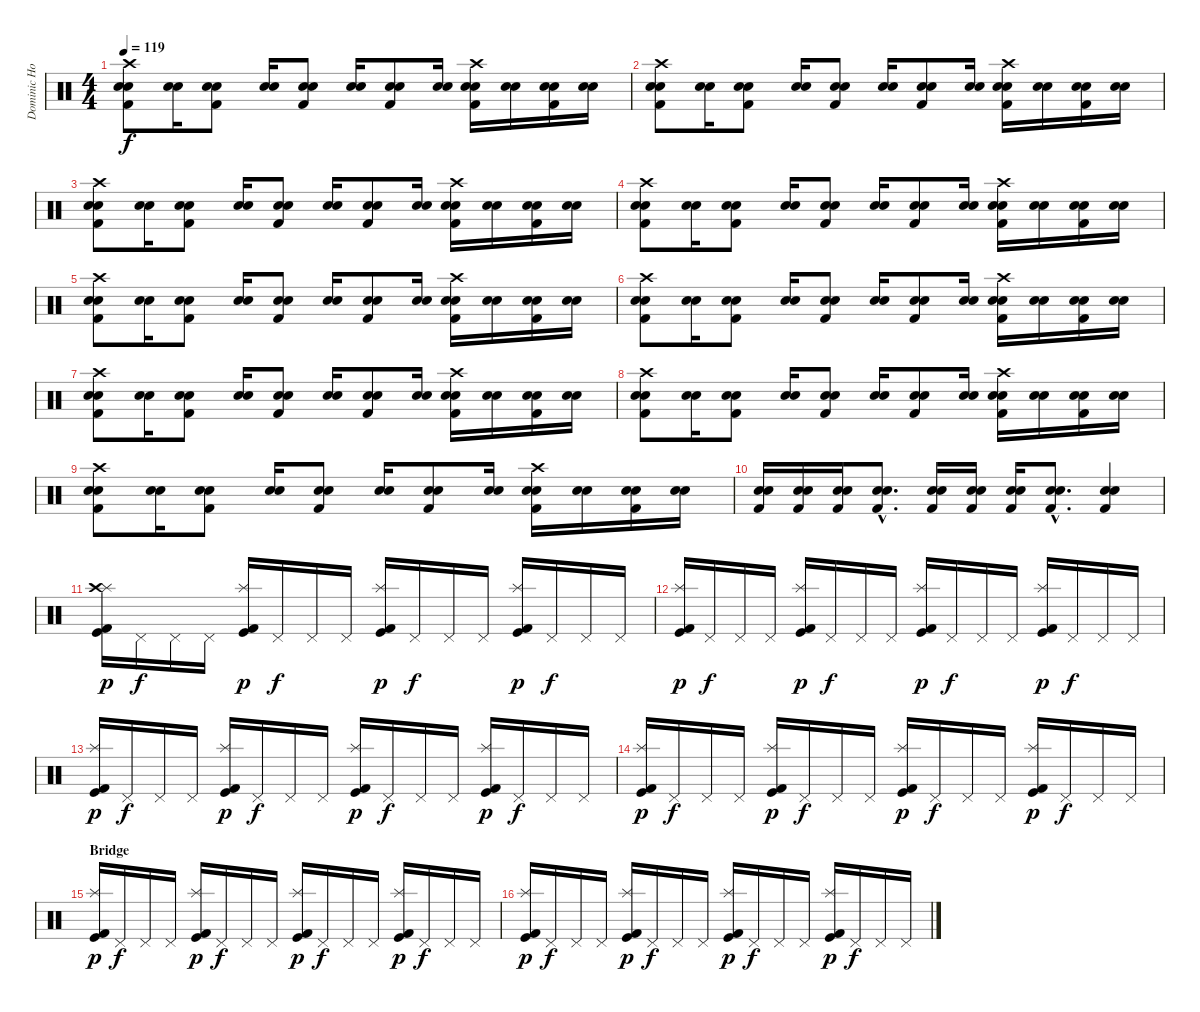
\track ("Dominic Howard" "Dominic Ho") {instrument percussion}
\staff {score}
\articulation defaults
\ts (4 4)
\tempo 119
\clef neutral
\ks c
("Crash high (hit)" "Electric Snare (hit)" "Snare (hit) 2" "Kick (hit) 2").8{dy f} ("Electric Snare (hit)" "Snare (hit) 2").16 ("Electric Snare (hit)" "Snare (hit) 2" "Kick (hit) 2").8 ("Electric Snare (hit)" "Snare (hit) 2").16 ("Electric Snare (hit)" "Snare (hit) 2" "Kick (hit) 2").8 ("Electric Snare (hit)" "Snare (hit) 2").16 ("Electric Snare (hit)" "Snare (hit) 2" "Kick (hit) 2").8 ("Electric Snare (hit)" "Snare (hit) 2").16 ("Crash high (hit)" "Electric Snare (hit)" "Snare (hit) 2" "Kick (hit) 2").16 ("Electric Snare (hit)" "Snare (hit) 2").16 ("Electric Snare (hit)" "Snare (hit) 2" "Kick (hit) 2").16 ("Electric Snare (hit)" "Snare (hit) 2").16 |
("Crash high (hit)" "Electric Snare (hit)" "Snare (hit) 2" "Kick (hit) 2").8 ("Electric Snare (hit)" "Snare (hit) 2").16 ("Electric Snare (hit)" "Snare (hit) 2" "Kick (hit) 2").8 ("Electric Snare (hit)" "Snare (hit) 2").16 ("Electric Snare (hit)" "Snare (hit) 2" "Kick (hit) 2").8 ("Electric Snare (hit)" "Snare (hit) 2").16 ("Electric Snare (hit)" "Snare (hit) 2" "Kick (hit) 2").8 ("Electric Snare (hit)" "Snare (hit) 2").16 ("Crash high (hit)" "Electric Snare (hit)" "Snare (hit) 2" "Kick (hit) 2").16 ("Electric Snare (hit)" "Snare (hit) 2").16 ("Electric Snare (hit)" "Snare (hit) 2" "Kick (hit) 2").16 ("Electric Snare (hit)" "Snare (hit) 2").16 |
("Crash high (hit)" "Electric Snare (hit)" "Snare (hit) 2" "Kick (hit) 2").8 ("Electric Snare (hit)" "Snare (hit) 2").16 ("Electric Snare (hit)" "Snare (hit) 2" "Kick (hit) 2").8 ("Electric Snare (hit)" "Snare (hit) 2").16 ("Electric Snare (hit)" "Snare (hit) 2" "Kick (hit) 2").8 ("Electric Snare (hit)" "Snare (hit) 2").16 ("Electric Snare (hit)" "Snare (hit) 2" "Kick (hit) 2").8 ("Electric Snare (hit)" "Snare (hit) 2").16 ("Crash high (hit)" "Electric Snare (hit)" "Snare (hit) 2" "Kick (hit) 2").16 ("Electric Snare (hit)" "Snare (hit) 2").16 ("Electric Snare (hit)" "Snare (hit) 2" "Kick (hit) 2").16 ("Electric Snare (hit)" "Snare (hit) 2").16 |
("Crash high (hit)" "Electric Snare (hit)" "Snare (hit) 2" "Kick (hit) 2").8 ("Electric Snare (hit)" "Snare (hit) 2").16 ("Electric Snare (hit)" "Snare (hit) 2" "Kick (hit) 2").8 ("Electric Snare (hit)" "Snare (hit) 2").16 ("Electric Snare (hit)" "Snare (hit) 2" "Kick (hit) 2").8 ("Electric Snare (hit)" "Snare (hit) 2").16 ("Electric Snare (hit)" "Snare (hit) 2" "Kick (hit) 2").8 ("Electric Snare (hit)" "Snare (hit) 2").16 ("Crash high (hit)" "Electric Snare (hit)" "Snare (hit) 2" "Kick (hit) 2").16 ("Electric Snare (hit)" "Snare (hit) 2").16 ("Electric Snare (hit)" "Snare (hit) 2" "Kick (hit) 2").16 ("Electric Snare (hit)" "Snare (hit) 2").16 |
("Crash high (hit)" "Electric Snare (hit)" "Snare (hit) 2" "Kick (hit) 2").8 ("Electric Snare (hit)" "Snare (hit) 2").16 ("Electric Snare (hit)" "Snare (hit) 2" "Kick (hit) 2").8 ("Electric Snare (hit)" "Snare (hit) 2").16 ("Electric Snare (hit)" "Snare (hit) 2" "Kick (hit) 2").8 ("Electric Snare (hit)" "Snare (hit) 2").16 ("Electric Snare (hit)" "Snare (hit) 2" "Kick (hit) 2").8 ("Electric Snare (hit)" "Snare (hit) 2").16 ("Crash high (hit)" "Electric Snare (hit)" "Snare (hit) 2" "Kick (hit) 2").16 ("Electric Snare (hit)" "Snare (hit) 2").16 ("Electric Snare (hit)" "Snare (hit) 2" "Kick (hit) 2").16 ("Electric Snare (hit)" "Snare (hit) 2").16 |
("Crash high (hit)" "Electric Snare (hit)" "Snare (hit) 2" "Kick (hit) 2").8 ("Electric Snare (hit)" "Snare (hit) 2").16 ("Electric Snare (hit)" "Snare (hit) 2" "Kick (hit) 2").8 ("Electric Snare (hit)" "Snare (hit) 2").16 ("Electric Snare (hit)" "Snare (hit) 2" "Kick (hit) 2").8 ("Electric Snare (hit)" "Snare (hit) 2").16 ("Electric Snare (hit)" "Snare (hit) 2" "Kick (hit) 2").8 ("Electric Snare (hit)" "Snare (hit) 2").16 ("Crash high (hit)" "Electric Snare (hit)" "Snare (hit) 2" "Kick (hit) 2").16 ("Electric Snare (hit)" "Snare (hit) 2").16 ("Electric Snare (hit)" "Snare (hit) 2" "Kick (hit) 2").16 ("Electric Snare (hit)" "Snare (hit) 2").16 |
("Crash high (hit)" "Electric Snare (hit)" "Snare (hit) 2" "Kick (hit) 2").8 ("Electric Snare (hit)" "Snare (hit) 2").16 ("Electric Snare (hit)" "Snare (hit) 2" "Kick (hit) 2").8 ("Electric Snare (hit)" "Snare (hit) 2").16 ("Electric Snare (hit)" "Snare (hit) 2" "Kick (hit) 2").8 ("Electric Snare (hit)" "Snare (hit) 2").16 ("Electric Snare (hit)" "Snare (hit) 2" "Kick (hit) 2").8 ("Electric Snare (hit)" "Snare (hit) 2").16 ("Crash high (hit)" "Electric Snare (hit)" "Snare (hit) 2" "Kick (hit) 2").16 ("Electric Snare (hit)" "Snare (hit) 2").16 ("Electric Snare (hit)" "Snare (hit) 2" "Kick (hit) 2").16 ("Electric Snare (hit)" "Snare (hit) 2").16 |
("Crash high (hit)" "Electric Snare (hit)" "Snare (hit) 2" "Kick (hit) 2").8 ("Electric Snare (hit)" "Snare (hit) 2").16 ("Electric Snare (hit)" "Snare (hit) 2" "Kick (hit) 2").8 ("Electric Snare (hit)" "Snare (hit) 2").16 ("Electric Snare (hit)" "Snare (hit) 2" "Kick (hit) 2").8 ("Electric Snare (hit)" "Snare (hit) 2").16 ("Electric Snare (hit)" "Snare (hit) 2" "Kick (hit) 2").8 ("Electric Snare (hit)" "Snare (hit) 2").16 ("Crash high (hit)" "Electric Snare (hit)" "Snare (hit) 2" "Kick (hit) 2").16 ("Electric Snare (hit)" "Snare (hit) 2").16 ("Electric Snare (hit)" "Snare (hit) 2" "Kick (hit) 2").16 ("Electric Snare (hit)" "Snare (hit) 2").16 |
("Crash high (hit)" "Electric Snare (hit)" "Snare (hit) 2" "Kick (hit) 2").8 ("Electric Snare (hit)" "Snare (hit) 2").16 ("Electric Snare (hit)" "Snare (hit) 2" "Kick (hit) 2").8 ("Electric Snare (hit)" "Snare (hit) 2").16 ("Electric Snare (hit)" "Snare (hit) 2" "Kick (hit) 2").8 ("Electric Snare (hit)" "Snare (hit) 2").16 ("Electric Snare (hit)" "Snare (hit) 2" "Kick (hit) 2").8 ("Electric Snare (hit)" "Snare (hit) 2").16 ("Crash high (hit)" "Electric Snare (hit)" "Snare (hit) 2" "Kick (hit) 2").16 ("Electric Snare (hit)" "Snare (hit) 2").16 ("Electric Snare (hit)" "Snare (hit) 2" "Kick (hit) 2").16 ("Electric Snare (hit)" "Snare (hit) 2").16 |
("Kick (hit) 2" "Electric Snare (hit)" "Snare (hit) 2").16 ("Kick (hit) 2" "Electric Snare (hit)" "Snare (hit) 2").16 ("Kick (hit) 2" "Electric Snare (hit)" "Snare (hit) 2").16 ("Kick (hit) 2"{hac} "Electric Snare (hit)"{hac} "Snare (hit) 2"{hac}).8{d} ("Kick (hit) 2" "Electric Snare (hit)" "Snare (hit) 2").16 ("Kick (hit) 2" "Electric Snare (hit)" "Snare (hit) 2").16 ("Kick (hit) 2" "Electric Snare (hit)" "Snare (hit) 2").16 ("Kick (hit) 2"{hac} "Electric Snare (hit)"{hac} "Snare (hit) 2"{hac}).8{d} ("Kick (hit) 2" "Electric Snare (hit)" "Snare (hit) 2").4 |
("Splash (hit)" "Kick (hit)" "Kick (hit) 2" "Crash high (hit)").16{dy p} "Pedal Hi-Hat (hit)".16{dy f} "Pedal Hi-Hat (hit)".16 "Pedal Hi-Hat (hit)".16 ("Splash (hit)" "Kick (hit)" "Kick (hit) 2").16{dy p} "Pedal Hi-Hat (hit)".16{dy f} "Pedal Hi-Hat (hit)".16 "Pedal Hi-Hat (hit)".16 ("Splash (hit)" "Kick (hit)" "Kick (hit) 2").16{dy p} "Pedal Hi-Hat (hit)".16{dy f} "Pedal Hi-Hat (hit)".16 "Pedal Hi-Hat (hit)".16 ("Splash (hit)" "Kick (hit)" "Kick (hit) 2").16{dy p} "Pedal Hi-Hat (hit)".16{dy f} "Pedal Hi-Hat (hit)".16 "Pedal Hi-Hat (hit)".16 |
("Splash (hit)" "Kick (hit)" "Kick (hit) 2").16{dy p} "Pedal Hi-Hat (hit)".16{dy f} "Pedal Hi-Hat (hit)".16 "Pedal Hi-Hat (hit)".16 ("Splash (hit)" "Kick (hit)" "Kick (hit) 2").16{dy p} "Pedal Hi-Hat (hit)".16{dy f} "Pedal Hi-Hat (hit)".16 "Pedal Hi-Hat (hit)".16 ("Splash (hit)" "Kick (hit)" "Kick (hit) 2").16{dy p} "Pedal Hi-Hat (hit)".16{dy f} "Pedal Hi-Hat (hit)".16 "Pedal Hi-Hat (hit)".16 ("Splash (hit)" "Kick (hit)" "Kick (hit) 2").16{dy p} "Pedal Hi-Hat (hit)".16{dy f} "Pedal Hi-Hat (hit)".16 "Pedal Hi-Hat (hit)".16 |
("Splash (hit)" "Kick (hit)" "Kick (hit) 2").16{dy p} "Pedal Hi-Hat (hit)".16{dy f} "Pedal Hi-Hat (hit)".16 "Pedal Hi-Hat (hit)".16 ("Splash (hit)" "Kick (hit)" "Kick (hit) 2").16{dy p} "Pedal Hi-Hat (hit)".16{dy f} "Pedal Hi-Hat (hit)".16 "Pedal Hi-Hat (hit)".16 ("Splash (hit)" "Kick (hit)" "Kick (hit) 2").16{dy p} "Pedal Hi-Hat (hit)".16{dy f} "Pedal Hi-Hat (hit)".16 "Pedal Hi-Hat (hit)".16 ("Splash (hit)" "Kick (hit)" "Kick (hit) 2").16{dy p} "Pedal Hi-Hat (hit)".16{dy f} "Pedal Hi-Hat (hit)".16 "Pedal Hi-Hat (hit)".16 |
("Splash (hit)" "Kick (hit)" "Kick (hit) 2").16{dy p} "Pedal Hi-Hat (hit)".16{dy f} "Pedal Hi-Hat (hit)".16 "Pedal Hi-Hat (hit)".16 ("Splash (hit)" "Kick (hit)" "Kick (hit) 2").16{dy p} "Pedal Hi-Hat (hit)".16{dy f} "Pedal Hi-Hat (hit)".16 "Pedal Hi-Hat (hit)".16 ("Splash (hit)" "Kick (hit)" "Kick (hit) 2").16{dy p} "Pedal Hi-Hat (hit)".16{dy f} "Pedal Hi-Hat (hit)".16 "Pedal Hi-Hat (hit)".16 ("Splash (hit)" "Kick (hit)" "Kick (hit) 2").16{dy p} "Pedal Hi-Hat (hit)".16{dy f} "Pedal Hi-Hat (hit)".16 "Pedal Hi-Hat (hit)".16 |
\section ("" "Bridge")
("Splash (hit)" "Kick (hit)" "Kick (hit) 2").16{dy p} "Pedal Hi-Hat (hit)".16{dy f} "Pedal Hi-Hat (hit)".16 "Pedal Hi-Hat (hit)".16 ("Splash (hit)" "Kick (hit)" "Kick (hit) 2").16{dy p} "Pedal Hi-Hat (hit)".16{dy f} "Pedal Hi-Hat (hit)".16 "Pedal Hi-Hat (hit)".16 ("Splash (hit)" "Kick (hit)" "Kick (hit) 2").16{dy p} "Pedal Hi-Hat (hit)".16{dy f} "Pedal Hi-Hat (hit)".16 "Pedal Hi-Hat (hit)".16 ("Splash (hit)" "Kick (hit)" "Kick (hit) 2").16{dy p} "Pedal Hi-Hat (hit)".16{dy f} "Pedal Hi-Hat (hit)".16 "Pedal Hi-Hat (hit)".16 |
("Splash (hit)" "Kick (hit)" "Kick (hit) 2").16{dy p} "Pedal Hi-Hat (hit)".16{dy f} "Pedal Hi-Hat (hit)".16 "Pedal Hi-Hat (hit)".16 ("Splash (hit)" "Kick (hit)" "Kick (hit) 2").16{dy p} "Pedal Hi-Hat (hit)".16{dy f} "Pedal Hi-Hat (hit)".16 "Pedal Hi-Hat (hit)".16 ("Splash (hit)" "Kick (hit)" "Kick (hit) 2").16{dy p} "Pedal Hi-Hat (hit)".16{dy f} "Pedal Hi-Hat (hit)".16 "Pedal Hi-Hat (hit)".16 ("Splash (hit)" "Kick (hit)" "Kick (hit) 2").16{dy p} "Pedal Hi-Hat (hit)".16{dy f} "Pedal Hi-Hat (hit)".16 "Pedal Hi-Hat (hit)".16
